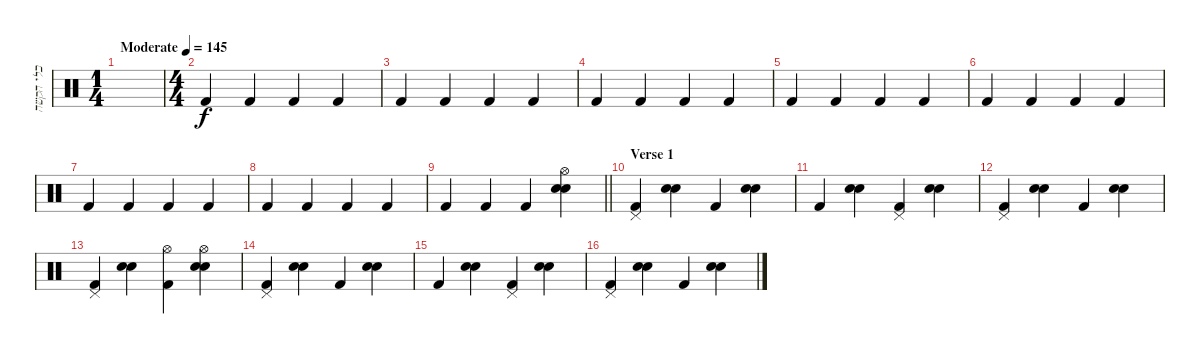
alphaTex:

\track ("כלי הקשה" "כלי הקשה") {instrument percussion bank 127}
\staff {score}
\articulation defaults
\ts (1 4)
\tempo (145 "Moderate")
\clef neutral
\ks c
|
\ts (4 4)
"Kick (hit) 2".4 "Kick (hit) 2".4 "Kick (hit) 2".4 "Kick (hit) 2".4 |
"Kick (hit) 2".4 "Kick (hit) 2".4 "Kick (hit) 2".4 "Kick (hit) 2".4 |
"Kick (hit) 2".4 "Kick (hit) 2".4 "Kick (hit) 2".4 "Kick (hit) 2".4 |
"Kick (hit) 2".4 "Kick (hit) 2".4 "Kick (hit) 2".4 "Kick (hit) 2".4 |
"Kick (hit) 2".4 "Kick (hit) 2".4 "Kick (hit) 2".4 "Kick (hit) 2".4 |
"Kick (hit) 2".4 "Kick (hit) 2".4 "Kick (hit) 2".4 "Kick (hit) 2".4 |
"Kick (hit) 2".4 "Kick (hit) 2".4 "Kick (hit) 2".4 "Kick (hit) 2".4 |
\barLineRight lightlight "Kick (hit) 2".4 "Kick (hit) 2".4 "Kick (hit) 2".4
("Hi-Hat (open)" "Snare (hit) 2" "Snare (hit) 2").4 |
\section ("" "Verse 1")
("Pedal Hi-Hat (hit)" "Kick (hit) 2").4 ("Snare (hit) 2" "Snare (hit) 2").4 "Kick (hit) 2".4 ("Snare (hit) 2" "Snare (hit) 2").4 |
"Kick (hit) 2".4 ("Snare (hit) 2" "Snare (hit) 2").4 ("Pedal Hi-Hat (hit)" "Kick (hit) 2").4 ("Snare (hit) 2" "Snare (hit) 2").4 |
("Pedal Hi-Hat (hit)" "Kick (hit) 2").4 ("Snare (hit) 2" "Snare (hit) 2").4 "Kick (hit) 2".4 ("Snare (hit) 2" "Snare (hit) 2").4 |
("Pedal Hi-Hat (hit)" "Kick (hit) 2").4 ("Snare (hit) 2" "Snare (hit) 2").4 ("Hi-Hat (open)" "Kick (hit) 2").4 ("Hi-Hat (open)" "Snare (hit) 2" "Snare (hit) 2").4 |
("Pedal Hi-Hat (hit)" "Kick (hit) 2").4 ("Snare (hit) 2" "Snare (hit) 2").4 "Kick (hit) 2".4 ("Snare (hit) 2" "Snare (hit) 2").4 |
"Kick (hit) 2".4 ("Snare (hit) 2" "Snare (hit) 2").4 ("Pedal Hi-Hat (hit)" "Kick (hit) 2").4 ("Snare (hit) 2" "Snare (hit) 2").4 |
("Pedal Hi-Hat (hit)" "Kick (hit) 2").4 ("Snare (hit) 2" "Snare (hit) 2").4 "Kick (hit) 2".4 ("Snare (hit) 2" "Snare (hit) 2").4
